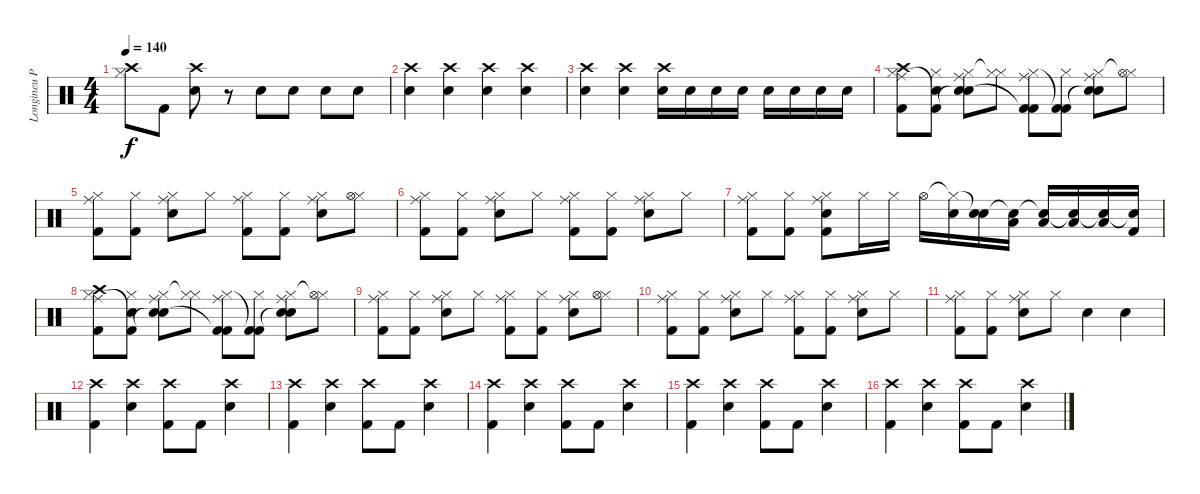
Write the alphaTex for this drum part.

\track ("Longineu Parsons III Drums" "Longineu P") {instrument percussion}
\staff {score}
\articulation defaults
\ts (4 4)
\tempo 140
\clef neutral
\ks c
("Hi-Hat (closed)" "Crash high (hit)").8{dy f} "Kick (hit) 2".8 ("Crash high (hit)" "Snare (hit) 2").8 r.8 "Snare (hit) 2".8 "Snare (hit) 2".8 "Snare (hit) 2".8 "Snare (hit) 2".8 |
("Crash high (hit)" "Snare (hit) 2").4 ("Crash high (hit)" "Snare (hit) 2").4 ("Crash high (hit)" "Snare (hit) 2").4 ("Crash high (hit)" "Snare (hit) 2").4 |
("Crash high (hit)" "Snare (hit) 2").4 ("Crash high (hit)" "Snare (hit) 2").4 ("Crash high (hit)" "Snare (hit) 2").16 "Snare (hit) 2".16 "Snare (hit) 2".16 "Snare (hit) 2".16 "Snare (hit) 2".16 "Snare (hit) 2".16 "Snare (hit) 2".16 "Snare (hit) 2".16 |
("Ride (middle)" "Hi-Hat (closed)" "Crash high (hit)" "Kick (hit) 2").8 ("Hi-Hat (closed)" "Snare (hit)"{t} "Kick (hit) 2").8 ("Ride (middle)" "Hi-Hat (closed)" "Snare (hit) 2"{t} "Snare (hit) 2").8 ("Hi-Hat (closed)" "Hi-Hat (closed)"{t}).8 ("Ride (middle)" "Hi-Hat (closed)" "Kick (hit) 2"{t} "Kick (hit) 2").8 ("Hi-Hat (closed)" "Kick (hit) 2"{t} "Kick (hit) 2").8 ("Ride (middle)" "Hi-Hat (closed)" "Snare (hit) 2"{t} "Snare (hit) 2").8 ("Hi-Hat (closed)" "Hi-Hat (open)"{t}).8 |
("Ride (middle)" "Hi-Hat (closed)" "Kick (hit) 2").8 ("Hi-Hat (closed)" "Kick (hit) 2").8 ("Ride (middle)" "Hi-Hat (closed)" "Snare (hit) 2").8 "Hi-Hat (closed)".8 ("Ride (middle)" "Hi-Hat (closed)" "Kick (hit) 2").8 ("Hi-Hat (closed)" "Kick (hit) 2").8 ("Ride (middle)" "Hi-Hat (closed)" "Snare (hit) 2").8 ("Hi-Hat (closed)" "Hi-Hat (open)").8 |
("Ride (middle)" "Hi-Hat (closed)" "Kick (hit) 2").8 ("Hi-Hat (closed)" "Kick (hit) 2").8 ("Ride (middle)" "Hi-Hat (closed)" "Snare (hit) 2").8 "Hi-Hat (closed)".8 ("Ride (middle)" "Hi-Hat (closed)" "Kick (hit) 2").8 ("Hi-Hat (closed)" "Kick (hit) 2").8 ("Ride (middle)" "Hi-Hat (closed)" "Snare (hit) 2").8 "Hi-Hat (closed)".8 |
("Ride (middle)" "Hi-Hat (closed)" "Kick (hit) 2").8 ("Hi-Hat (closed)" "Kick (hit) 2").8 ("Ride (middle)" "Hi-Hat (closed)" "Kick (hit) 2" "Snare (hit) 2").8 "Hi-Hat (closed)".16 "Hi-Hat (closed)".16 "Hi-Hat (open)".16 ("Hi-Hat (closed)"{t} "Snare (hit) 2").16 ("Snare (hit)"{t} "Snare (hit) 2").16 ("Snare (hit)"{t} "Low Tom (hit)").16 ("Snare (hit)"{t} "Low Tom (hit)").16 ("Snare (hit)"{t} "Low Floor Tom (hit)").16 ("Snare (hit)"{t} "Low Floor Tom (hit)").16 ("Snare (hit)"{t} "Kick (hit) 2").16 |
("Ride (middle)" "Hi-Hat (closed)" "Crash high (hit)" "Kick (hit) 2").8 ("Hi-Hat (closed)" "Snare (hit)"{t} "Kick (hit) 2").8 ("Ride (middle)" "Hi-Hat (closed)" "Snare (hit) 2"{t} "Snare (hit) 2").8 ("Hi-Hat (closed)" "Hi-Hat (closed)"{t}).8 ("Ride (middle)" "Hi-Hat (closed)" "Kick (hit) 2"{t} "Kick (hit) 2").8 ("Hi-Hat (closed)" "Kick (hit) 2"{t} "Kick (hit) 2").8 ("Ride (middle)" "Hi-Hat (closed)" "Snare (hit) 2"{t} "Snare (hit) 2").8 ("Hi-Hat (closed)" "Hi-Hat (open)"{t}).8 |
("Ride (middle)" "Hi-Hat (closed)" "Kick (hit) 2").8 ("Hi-Hat (closed)" "Kick (hit) 2").8 ("Ride (middle)" "Hi-Hat (closed)" "Snare (hit) 2").8 "Hi-Hat (closed)".8 ("Ride (middle)" "Hi-Hat (closed)" "Kick (hit) 2").8 ("Hi-Hat (closed)" "Kick (hit) 2").8 ("Ride (middle)" "Hi-Hat (closed)" "Snare (hit) 2").8 ("Hi-Hat (closed)" "Hi-Hat (open)").8 |
("Ride (middle)" "Hi-Hat (closed)" "Kick (hit) 2").8 ("Hi-Hat (closed)" "Kick (hit) 2").8 ("Ride (middle)" "Hi-Hat (closed)" "Snare (hit) 2").8 "Hi-Hat (closed)".8 ("Ride (middle)" "Hi-Hat (closed)" "Kick (hit) 2").8 ("Hi-Hat (closed)" "Kick (hit) 2").8 ("Ride (middle)" "Hi-Hat (closed)" "Snare (hit) 2").8 "Hi-Hat (closed)".8 |
("Ride (middle)" "Hi-Hat (closed)" "Kick (hit) 2").8 ("Hi-Hat (closed)" "Kick (hit) 2").8 ("Ride (middle)" "Hi-Hat (closed)" "Snare (hit) 2").8 "Hi-Hat (closed)".8 "Snare (hit) 2".4 "Snare (hit) 2".4 |
("Crash high (hit)" "Kick (hit) 2").4 ("Crash high (hit)" "Snare (hit) 2").4 ("Crash high (hit)" "Kick (hit) 2").8 "Kick (hit) 2".8 ("Crash high (hit)" "Snare (hit) 2").4 |
("Crash high (hit)" "Kick (hit) 2").4 ("Crash high (hit)" "Snare (hit) 2").4 ("Crash high (hit)" "Kick (hit) 2").8 "Kick (hit) 2".8 ("Crash high (hit)" "Snare (hit) 2").4 |
("Crash high (hit)" "Kick (hit) 2").4 ("Crash high (hit)" "Snare (hit) 2").4 ("Crash high (hit)" "Kick (hit) 2").8 "Kick (hit) 2".8 ("Crash high (hit)" "Snare (hit) 2").4 |
("Crash high (hit)" "Kick (hit) 2").4 ("Crash high (hit)" "Snare (hit) 2").4 ("Crash high (hit)" "Kick (hit) 2").8 "Kick (hit) 2".8 ("Crash high (hit)" "Snare (hit) 2").4 |
("Crash high (hit)" "Kick (hit) 2").4 ("Crash high (hit)" "Snare (hit) 2").4 ("Crash high (hit)" "Kick (hit) 2").8 "Kick (hit) 2".8 ("Crash high (hit)" "Snare (hit) 2").4
